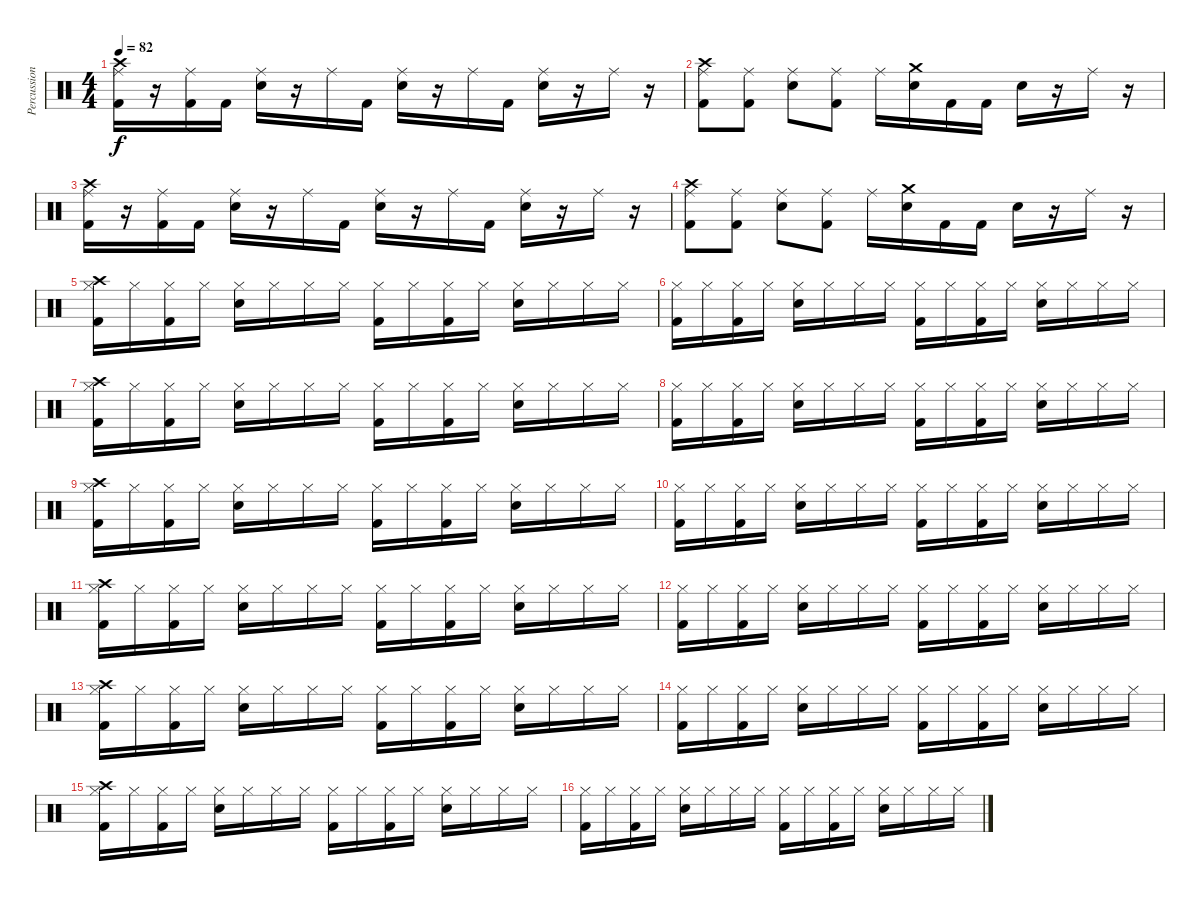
\track ("Percussions" "Percussion") {instrument percussion}
\staff {score}
\articulation defaults
\ts (4 4)
\tempo 82
\clef neutral
\ks c
("Crash high (hit)" "Ride (middle)" "Kick (hit) 2").16{dy f} r.16 ("Ride (middle)" "Kick (hit) 2").16 "Kick (hit) 2".16 ("Ride (middle)" "Electric Snare (hit)").16 r.16 "Ride (middle)".16 "Kick (hit) 2".16 ("Ride (middle)" "Electric Snare (hit)").16 r.16 "Ride (middle)".16 "Kick (hit) 2".16 ("Ride (middle)" "Electric Snare (hit)").16 r.16 "Ride (middle)".16 r.16 |
("Crash high (hit)" "Ride (middle)" "Kick (hit) 2").8 ("Ride (middle)" "Kick (hit) 2").8 ("Ride (middle)" "Electric Snare (hit)").8 ("Ride (middle)" "Kick (hit) 2").8 "Ride (middle)".16 ("Crash medium (hit)" "Electric Snare (hit)").16 "Kick (hit) 2".16 "Kick (hit) 2".16 "Electric Snare (hit)".16 r.16 "Ride (middle)".16 r.16 |
("Crash high (hit)" "Ride (middle)" "Kick (hit) 2").16 r.16 ("Ride (middle)" "Kick (hit) 2").16 "Kick (hit) 2".16 ("Ride (middle)" "Electric Snare (hit)").16 r.16 "Ride (middle)".16 "Kick (hit) 2".16 ("Ride (middle)" "Electric Snare (hit)").16 r.16 "Ride (middle)".16 "Kick (hit) 2".16 ("Ride (middle)" "Electric Snare (hit)").16 r.16 "Ride (middle)".16 r.16 |
("Crash high (hit)" "Ride (middle)" "Kick (hit) 2").8 ("Ride (middle)" "Kick (hit) 2").8 ("Ride (middle)" "Electric Snare (hit)").8 ("Ride (middle)" "Kick (hit) 2").8 "Ride (middle)".16 ("Crash medium (hit)" "Electric Snare (hit)").16 "Kick (hit) 2".16 "Kick (hit) 2".16 "Electric Snare (hit)".16 r.16 "Ride (middle)".16 r.16 |
("Crash high (hit)" "Hi-Hat (closed)" "Kick (hit) 2").16 "Hi-Hat (closed)".16 ("Hi-Hat (closed)" "Kick (hit) 2").16 "Hi-Hat (closed)".16 ("Hi-Hat (closed)" "Electric Snare (hit)").16 "Hi-Hat (closed)".16 "Hi-Hat (closed)".16 "Hi-Hat (closed)".16 ("Hi-Hat (closed)" "Kick (hit) 2").16 "Hi-Hat (closed)".16 ("Hi-Hat (closed)" "Kick (hit) 2").16 "Hi-Hat (closed)".16 ("Hi-Hat (closed)" "Electric Snare (hit)").16 "Hi-Hat (closed)".16 "Hi-Hat (closed)".16 "Hi-Hat (closed)".16 |
("Hi-Hat (closed)" "Kick (hit) 2").16 "Hi-Hat (closed)".16 ("Hi-Hat (closed)" "Kick (hit) 2").16 "Hi-Hat (closed)".16 ("Hi-Hat (closed)" "Electric Snare (hit)").16 "Hi-Hat (closed)".16 "Hi-Hat (closed)".16 "Hi-Hat (closed)".16 ("Hi-Hat (closed)" "Kick (hit) 2").16 "Hi-Hat (closed)".16 ("Hi-Hat (closed)" "Kick (hit) 2").16 "Hi-Hat (closed)".16 ("Hi-Hat (closed)" "Electric Snare (hit)").16 "Hi-Hat (closed)".16 "Hi-Hat (closed)".16 "Hi-Hat (closed)".16 |
("Crash high (hit)" "Hi-Hat (closed)" "Kick (hit) 2").16 "Hi-Hat (closed)".16 ("Hi-Hat (closed)" "Kick (hit) 2").16 "Hi-Hat (closed)".16 ("Hi-Hat (closed)" "Electric Snare (hit)").16 "Hi-Hat (closed)".16 "Hi-Hat (closed)".16 "Hi-Hat (closed)".16 ("Hi-Hat (closed)" "Kick (hit) 2").16 "Hi-Hat (closed)".16 ("Hi-Hat (closed)" "Kick (hit) 2").16 "Hi-Hat (closed)".16 ("Hi-Hat (closed)" "Electric Snare (hit)").16 "Hi-Hat (closed)".16 "Hi-Hat (closed)".16 "Hi-Hat (closed)".16 |
("Hi-Hat (closed)" "Kick (hit) 2").16 "Hi-Hat (closed)".16 ("Hi-Hat (closed)" "Kick (hit) 2").16 "Hi-Hat (closed)".16 ("Hi-Hat (closed)" "Electric Snare (hit)").16 "Hi-Hat (closed)".16 "Hi-Hat (closed)".16 "Hi-Hat (closed)".16 ("Hi-Hat (closed)" "Kick (hit) 2").16 "Hi-Hat (closed)".16 ("Hi-Hat (closed)" "Kick (hit) 2").16 "Hi-Hat (closed)".16 ("Hi-Hat (closed)" "Electric Snare (hit)").16 "Hi-Hat (closed)".16 "Hi-Hat (closed)".16 "Hi-Hat (closed)".16 |
("Crash high (hit)" "Hi-Hat (closed)" "Kick (hit) 2").16 "Hi-Hat (closed)".16 ("Hi-Hat (closed)" "Kick (hit) 2").16 "Hi-Hat (closed)".16 ("Hi-Hat (closed)" "Electric Snare (hit)").16 "Hi-Hat (closed)".16 "Hi-Hat (closed)".16 "Hi-Hat (closed)".16 ("Hi-Hat (closed)" "Kick (hit) 2").16 "Hi-Hat (closed)".16 ("Hi-Hat (closed)" "Kick (hit) 2").16 "Hi-Hat (closed)".16 ("Hi-Hat (closed)" "Electric Snare (hit)").16 "Hi-Hat (closed)".16 "Hi-Hat (closed)".16 "Hi-Hat (closed)".16 |
("Hi-Hat (closed)" "Kick (hit) 2").16 "Hi-Hat (closed)".16 ("Hi-Hat (closed)" "Kick (hit) 2").16 "Hi-Hat (closed)".16 ("Hi-Hat (closed)" "Electric Snare (hit)").16 "Hi-Hat (closed)".16 "Hi-Hat (closed)".16 "Hi-Hat (closed)".16 ("Hi-Hat (closed)" "Kick (hit) 2").16 "Hi-Hat (closed)".16 ("Hi-Hat (closed)" "Kick (hit) 2").16 "Hi-Hat (closed)".16 ("Hi-Hat (closed)" "Electric Snare (hit)").16 "Hi-Hat (closed)".16 "Hi-Hat (closed)".16 "Hi-Hat (closed)".16 |
("Crash high (hit)" "Hi-Hat (closed)" "Kick (hit) 2").16 "Hi-Hat (closed)".16 ("Hi-Hat (closed)" "Kick (hit) 2").16 "Hi-Hat (closed)".16 ("Hi-Hat (closed)" "Electric Snare (hit)").16 "Hi-Hat (closed)".16 "Hi-Hat (closed)".16 "Hi-Hat (closed)".16 ("Hi-Hat (closed)" "Kick (hit) 2").16 "Hi-Hat (closed)".16 ("Hi-Hat (closed)" "Kick (hit) 2").16 "Hi-Hat (closed)".16 ("Hi-Hat (closed)" "Electric Snare (hit)").16 "Hi-Hat (closed)".16 "Hi-Hat (closed)".16 "Hi-Hat (closed)".16 |
("Hi-Hat (closed)" "Kick (hit) 2").16 "Hi-Hat (closed)".16 ("Hi-Hat (closed)" "Kick (hit) 2").16 "Hi-Hat (closed)".16 ("Hi-Hat (closed)" "Electric Snare (hit)").16 "Hi-Hat (closed)".16 "Hi-Hat (closed)".16 "Hi-Hat (closed)".16 ("Hi-Hat (closed)" "Kick (hit) 2").16 "Hi-Hat (closed)".16 ("Hi-Hat (closed)" "Kick (hit) 2").16 "Hi-Hat (closed)".16 ("Hi-Hat (closed)" "Electric Snare (hit)").16 "Hi-Hat (closed)".16 "Hi-Hat (closed)".16 "Hi-Hat (closed)".16 |
("Crash high (hit)" "Hi-Hat (closed)" "Kick (hit) 2").16 "Hi-Hat (closed)".16 ("Hi-Hat (closed)" "Kick (hit) 2").16 "Hi-Hat (closed)".16 ("Hi-Hat (closed)" "Electric Snare (hit)").16 "Hi-Hat (closed)".16 "Hi-Hat (closed)".16 "Hi-Hat (closed)".16 ("Hi-Hat (closed)" "Kick (hit) 2").16 "Hi-Hat (closed)".16 ("Hi-Hat (closed)" "Kick (hit) 2").16 "Hi-Hat (closed)".16 ("Hi-Hat (closed)" "Electric Snare (hit)").16 "Hi-Hat (closed)".16 "Hi-Hat (closed)".16 "Hi-Hat (closed)".16 |
("Hi-Hat (closed)" "Kick (hit) 2").16 "Hi-Hat (closed)".16 ("Hi-Hat (closed)" "Kick (hit) 2").16 "Hi-Hat (closed)".16 ("Hi-Hat (closed)" "Electric Snare (hit)").16 "Hi-Hat (closed)".16 "Hi-Hat (closed)".16 "Hi-Hat (closed)".16 ("Hi-Hat (closed)" "Kick (hit) 2").16 "Hi-Hat (closed)".16 ("Hi-Hat (closed)" "Kick (hit) 2").16 "Hi-Hat (closed)".16 ("Hi-Hat (closed)" "Electric Snare (hit)").16 "Hi-Hat (closed)".16 "Hi-Hat (closed)".16 "Hi-Hat (closed)".16 |
("Crash high (hit)" "Hi-Hat (closed)" "Kick (hit) 2").16 "Hi-Hat (closed)".16 ("Hi-Hat (closed)" "Kick (hit) 2").16 "Hi-Hat (closed)".16 ("Hi-Hat (closed)" "Electric Snare (hit)").16 "Hi-Hat (closed)".16 "Hi-Hat (closed)".16 "Hi-Hat (closed)".16 ("Hi-Hat (closed)" "Kick (hit) 2").16 "Hi-Hat (closed)".16 ("Hi-Hat (closed)" "Kick (hit) 2").16 "Hi-Hat (closed)".16 ("Hi-Hat (closed)" "Electric Snare (hit)").16 "Hi-Hat (closed)".16 "Hi-Hat (closed)".16 "Hi-Hat (closed)".16 |
("Hi-Hat (closed)" "Kick (hit) 2").16 "Hi-Hat (closed)".16 ("Hi-Hat (closed)" "Kick (hit) 2").16 "Hi-Hat (closed)".16 ("Hi-Hat (closed)" "Electric Snare (hit)").16 "Hi-Hat (closed)".16 "Hi-Hat (closed)".16 "Hi-Hat (closed)".16 ("Hi-Hat (closed)" "Kick (hit) 2").16 "Hi-Hat (closed)".16 ("Hi-Hat (closed)" "Kick (hit) 2").16 "Hi-Hat (closed)".16 ("Hi-Hat (closed)" "Electric Snare (hit)").16 "Hi-Hat (closed)".16 "Hi-Hat (closed)".16 "Hi-Hat (closed)".16
